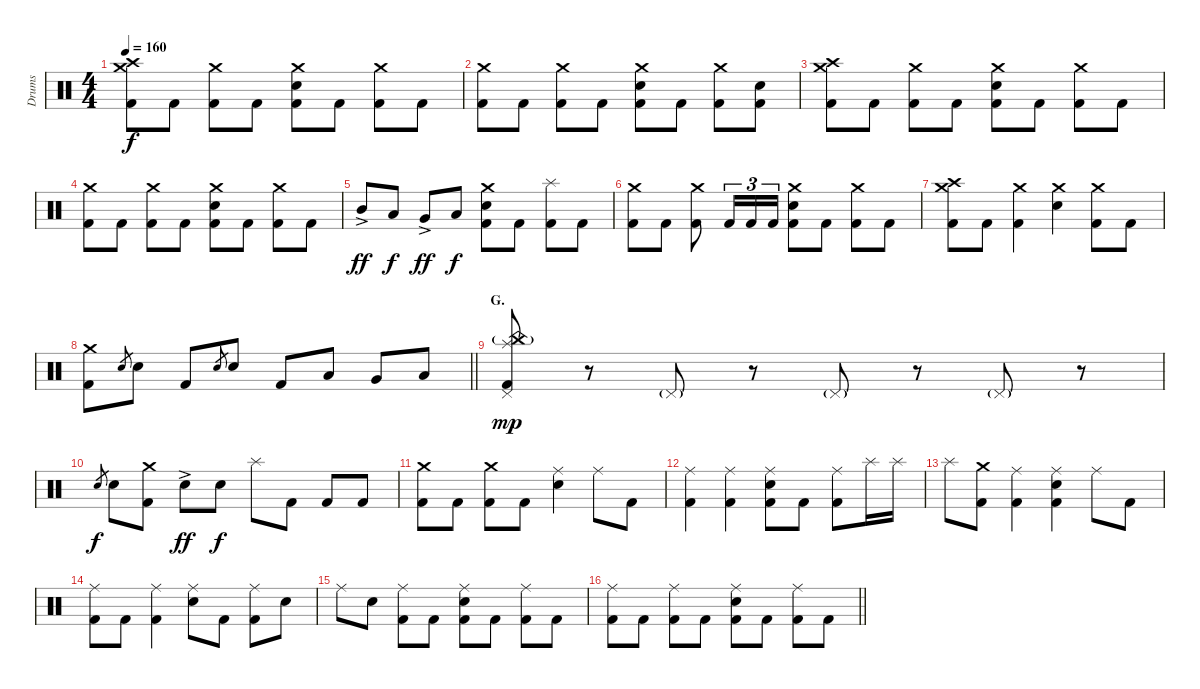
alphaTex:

\track ("Drums" "Drums") {instrument percussion}
\staff {score}
\articulation defaults
\ts (4 4)
\tempo 160
\clef neutral
\ks c
("Crash medium (hit)" "Crash high (hit)" "Kick (hit) 2").8{dy f} "Kick (hit) 2".8 ("Crash medium (hit)" "Kick (hit) 2").8 "Kick (hit) 2".8 ("Crash medium (hit)" "Electric Snare (hit)" "Kick (hit) 2").8 "Kick (hit) 2".8 ("Crash medium (hit)" "Kick (hit) 2").8 "Kick (hit) 2".8 |
("Crash medium (hit)" "Kick (hit) 2").8 "Kick (hit) 2".8 ("Crash medium (hit)" "Kick (hit) 2").8 "Kick (hit) 2".8 ("Crash medium (hit)" "Electric Snare (hit)" "Kick (hit) 2").8 "Kick (hit) 2".8 ("Crash medium (hit)" "Kick (hit) 2").8 ("Electric Snare (hit)" "Kick (hit) 2").8 |
("Crash medium (hit)" "Crash high (hit)" "Kick (hit) 2").8 "Kick (hit) 2".8 ("Crash medium (hit)" "Kick (hit) 2").8 "Kick (hit) 2".8 ("Crash medium (hit)" "Electric Snare (hit)" "Kick (hit) 2").8 "Kick (hit) 2".8 ("Crash medium (hit)" "Kick (hit) 2").8 "Kick (hit) 2".8 |
("Crash medium (hit)" "Kick (hit) 2").8 "Kick (hit) 2".8 ("Crash medium (hit)" "Kick (hit) 2").8 "Kick (hit) 2".8 ("Crash medium (hit)" "Electric Snare (hit)" "Kick (hit) 2").8 "Kick (hit) 2".8 ("Crash medium (hit)" "Kick (hit) 2").8 "Kick (hit) 2".8 |
"Mid Tom (hit)"{ac}.8{dy ff} "Low Tom (hit)".8{dy f} "Very Low Tom (hit)"{ac}.8{dy ff} "Low Floor Tom (hit)".8{dy f} ("Crash medium (hit)" "Electric Snare (hit)" "Kick (hit) 2").8 "Kick (hit) 2".8 ("Splash (hit)" "Kick (hit) 2").8 "Kick (hit) 2".8 |
("Crash medium (hit)" "Kick (hit) 2").8 "Kick (hit) 2".8 ("Crash medium (hit)" "Kick (hit) 2").8 "Kick (hit) 2".16{tu (3 2)} "Kick (hit) 2".16{tu (3 2)} "Kick (hit) 2".16{tu (3 2)} ("Crash medium (hit)" "Electric Snare (hit)" "Kick (hit) 2").8 "Kick (hit) 2".8 ("Crash medium (hit)" "Kick (hit) 2").8 "Kick (hit) 2".8 |
("Crash medium (hit)" "Crash high (hit)" "Kick (hit) 2").8 "Kick (hit) 2".8 ("Crash medium (hit)" "Kick (hit) 2").4 ("Crash medium (hit)" "Electric Snare (hit)").4 ("Crash medium (hit)" "Kick (hit) 2").8 "Kick (hit) 2".8 |
\barLineRight lightlight
("Crash medium (hit)" "Kick (hit) 2").8 "Electric Snare (hit)".8{gr} "Electric Snare (hit)".8 "Kick (hit) 2".8 "Electric Snare (hit)".8{gr} "Electric Snare (hit)".8 "Kick (hit) 2".8 "Low Tom (hit)".8 "Very Low Tom (hit)".8 "Low Floor Tom (hit)".8 |
\section ("" "G.")
("China (hit)"{g} "Splash (hit)" "Pedal Hi-Hat (hit)" "Kick (hit) 2").8{dy mp} r.8 "Pedal Hi-Hat (hit)"{g}.8 r.8 "Pedal Hi-Hat (hit)"{g}.8 r.8 "Pedal Hi-Hat (hit)"{g}.8 r.8 |
"Electric Snare (hit)".8{gr dy f} "Electric Snare (hit)".8 ("Crash medium (hit)" "Kick (hit) 2").8 "Electric Snare (hit)"{ac}.8{dy ff} "Electric Snare (hit)".8{dy f} "Splash (hit)".8 "Kick (hit) 2".8 "Kick (hit) 2".8 "Kick (hit) 2".8 |
("Crash medium (hit)" "Kick (hit) 2").8 "Kick (hit) 2".8 ("Crash medium (hit)" "Kick (hit) 2").8 "Kick (hit) 2".8 ("Ride (middle)" "Electric Snare (hit)").4 "Ride (middle)".8 "Kick (hit) 2".8 |
("Ride (middle)" "Kick (hit) 2").4 ("Ride (middle)" "Kick (hit) 2").4 ("Ride (middle)" "Electric Snare (hit)" "Kick (hit) 2").8 "Kick (hit) 2".8 ("Ride (middle)" "Kick (hit) 2").8 "Splash (hit)".16 "Splash (hit)".16 |
"Splash (hit)".8 ("Crash medium (hit)" "Kick (hit) 2").8 ("Ride (middle)" "Kick (hit) 2").4 ("Ride (middle)" "Electric Snare (hit)" "Kick (hit) 2").4 "Ride (middle)".8 "Kick (hit) 2".8 |
("Ride (middle)" "Kick (hit) 2").8 "Kick (hit) 2".8 ("Ride (middle)" "Kick (hit) 2").4 ("Ride (middle)" "Electric Snare (hit)").8 "Kick (hit) 2".8 ("Ride (middle)" "Kick (hit) 2").8 "Electric Snare (hit)".8 |
"Ride (middle)".8 "Electric Snare (hit)".8 ("Ride (middle)" "Kick (hit) 2").8 "Kick (hit) 2".8 ("Ride (middle)" "Electric Snare (hit)" "Kick (hit) 2").8 "Kick (hit) 2".8 ("Ride (middle)" "Kick (hit) 2").8 "Kick (hit) 2".8 |
\barLineRight lightlight
("Ride (middle)" "Kick (hit) 2").8 "Kick (hit) 2".8 ("Ride (middle)" "Kick (hit) 2").8 "Kick (hit) 2".8 ("Ride (middle)" "Electric Snare (hit)" "Kick (hit) 2").8 "Kick (hit) 2".8 ("Ride (middle)" "Kick (hit) 2").8 "Kick (hit) 2".8
